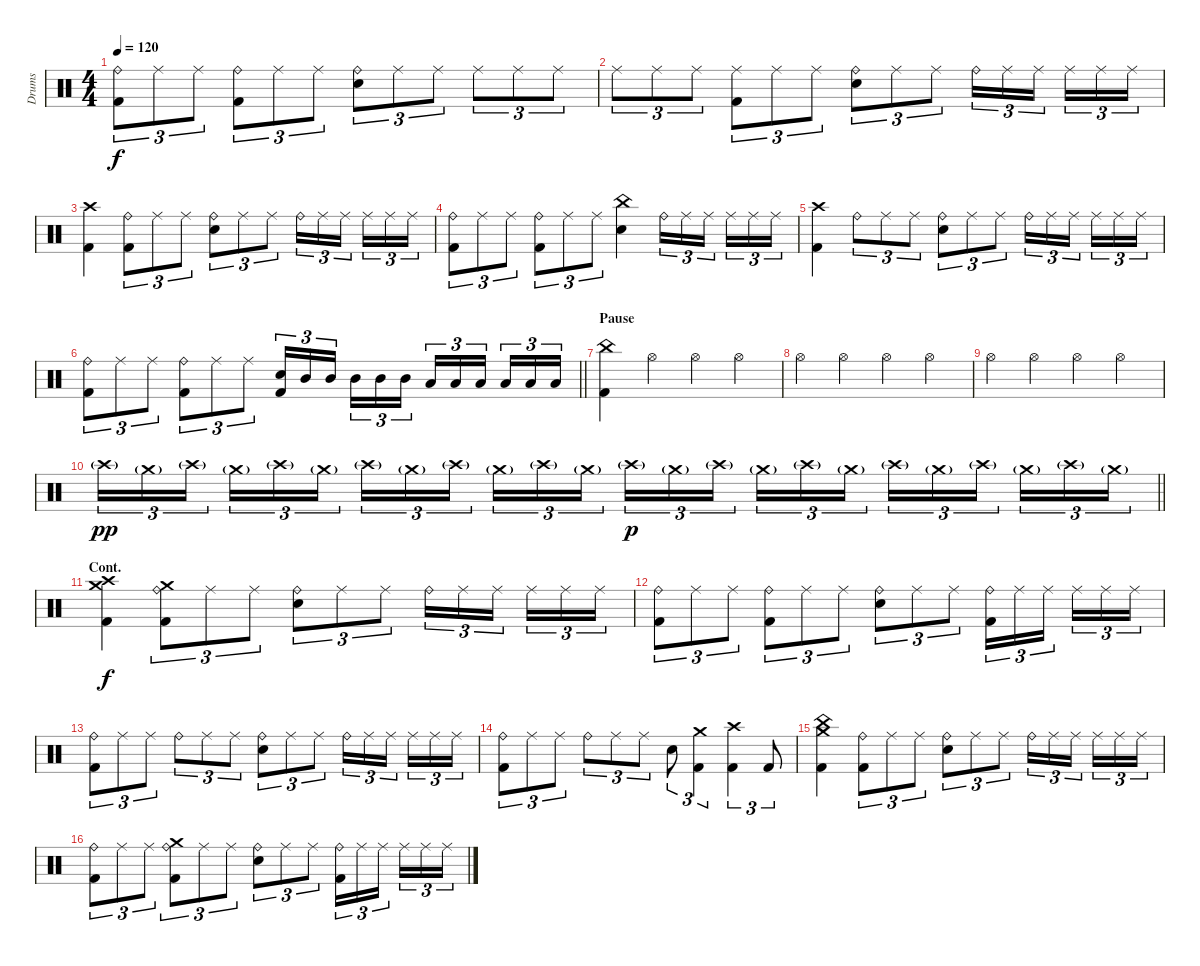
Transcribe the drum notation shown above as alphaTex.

\track ("Drums" "Drums") {instrument percussion}
\staff {score}
\articulation defaults
\ts (4 4)
\tempo 120
\clef neutral
\ks c
("Ride (bell)" "Kick (hit) 2").8{tu (3 2) dy f} "Ride (middle)".8{tu (3 2)} "Ride (middle)".8{tu (3 2)} ("Ride (bell)" "Kick (hit) 2").8{tu (3 2)} "Ride (middle)".8{tu (3 2)} "Ride (middle)".8{tu (3 2)} ("Ride (bell)" "Electric Snare (hit)").8{tu (3 2)} "Ride (middle)".8{tu (3 2)} "Ride (middle)".8{tu (3 2)} "Ride (middle)".8{tu (3 2)} "Ride (middle)".8{tu (3 2)} "Ride (middle)".8{tu (3 2)} |
"Ride (middle)".8{tu (3 2)} "Ride (middle)".8{tu (3 2)} "Ride (middle)".8{tu (3 2)} ("Ride (middle)" "Kick (hit) 2").8{tu (3 2)} "Ride (middle)".8{tu (3 2)} "Ride (middle)".8{tu (3 2)} ("Ride (bell)" "Electric Snare (hit)").8{tu (3 2)} "Ride (middle)".8{tu (3 2)} "Ride (middle)".8{tu (3 2)} "Ride (bell)".16{tu (3 2)} "Ride (middle)".16{tu (3 2)} "Ride (middle)".16{tu (3 2) beam splitsecondary} "Ride (middle)".16{tu (3 2)} "Ride (middle)".16{tu (3 2)} "Ride (middle)".16{tu (3 2)} |
("Crash high (hit)" "Kick (hit) 2").4 ("Ride (bell)" "Kick (hit) 2").8{tu (3 2)} "Ride (middle)".8{tu (3 2)} "Ride (middle)".8{tu (3 2)} ("Ride (bell)" "Electric Snare (hit)").8{tu (3 2)} "Ride (middle)".8{tu (3 2)} "Ride (middle)".8{tu (3 2)} "Ride (bell)".16{tu (3 2)} "Ride (middle)".16{tu (3 2)} "Ride (middle)".16{tu (3 2) beam splitsecondary} "Ride (middle)".16{tu (3 2)} "Ride (middle)".16{tu (3 2)} "Ride (middle)".16{tu (3 2)} |
("Ride (bell)" "Kick (hit) 2").8{tu (3 2)} "Ride (middle)".8{tu (3 2)} "Ride (middle)".8{tu (3 2)} ("Ride (bell)" "Kick (hit) 2").8{tu (3 2)} "Ride (middle)".8{tu (3 2)} "Ride (middle)".8{tu (3 2)} ("China (hit)" "Electric Snare (hit)").4 "Ride (bell)".16{tu (3 2)} "Ride (middle)".16{tu (3 2)} "Ride (middle)".16{tu (3 2) beam splitsecondary} "Ride (middle)".16{tu (3 2)} "Ride (middle)".16{tu (3 2)} "Ride (middle)".16{tu (3 2)} |
("Crash high (hit)" "Kick (hit) 2").4 "Ride (bell)".8{tu (3 2)} "Ride (middle)".8{tu (3 2)} "Ride (middle)".8{tu (3 2)} ("Ride (bell)" "Electric Snare (hit)").8{tu (3 2)} "Ride (middle)".8{tu (3 2)} "Ride (middle)".8{tu (3 2)} "Ride (bell)".16{tu (3 2)} "Ride (middle)".16{tu (3 2)} "Ride (middle)".16{tu (3 2) beam splitsecondary} "Ride (middle)".16{tu (3 2)} "Ride (middle)".16{tu (3 2)} "Ride (middle)".16{tu (3 2)} |
\barLineRight lightlight
("Ride (bell)" "Kick (hit) 2").8{tu (3 2)} "Ride (middle)".8{tu (3 2)} "Ride (middle)".8{tu (3 2)} ("Ride (bell)" "Kick (hit) 2").8{tu (3 2)} "Ride (middle)".8{tu (3 2)} "Ride (middle)".8{tu (3 2)} ("Electric Snare (hit)" "Kick (hit) 2").16{tu (3 2)} "Mid Tom (hit)".16{tu (3 2)} "Mid Tom (hit)".16{tu (3 2) beam splitsecondary} "Mid Tom (hit)".16{tu (3 2)} "Mid Tom (hit)".16{tu (3 2)} "Mid Tom (hit)".16{tu (3 2)} "Low Floor Tom (hit)".16{tu (3 2)} "Low Floor Tom (hit)".16{tu (3 2)} "Low Floor Tom (hit)".16{tu (3 2) beam splitsecondary} "Low Floor Tom (hit)".16{tu (3 2)} "Low Floor Tom (hit)".16{tu (3 2)} "Low Floor Tom (hit)".16{tu (3 2)} |
\section ("" "Pause")
("China (hit)" "Kick (hit) 2").4 "Hi-Hat (open)".4 "Hi-Hat (open)".4 "Hi-Hat (open)".4 |
"Hi-Hat (open)".4 "Hi-Hat (open)".4 "Hi-Hat (open)".4 "Hi-Hat (open)".4 |
"Hi-Hat (open)".4 "Hi-Hat (open)".4 "Hi-Hat (open)".4 "Hi-Hat (open)".4 |
\barLineRight lightlight "Crash high (hit)"{g}.16{tu (3 2) dy pp} "Crash medium (hit)"{g}.16{tu (3 2)} "Crash high (hit)"{g}.16{tu (3 2) beam splitsecondary} "Crash medium (hit)"{g}.16{tu (3 2)} "Crash high (hit)"{g}.16{tu (3 2)} "Crash medium (hit)"{g}.16{tu (3 2)} "Crash high (hit)"{g}.16{tu (3 2)} "Crash medium (hit)"{g}.16{tu (3 2)} "Crash high (hit)"{g}.16{tu (3 2) beam splitsecondary} "Crash medium (hit)"{g}.16{tu (3 2)} "Crash high (hit)"{g}.16{tu (3 2)} "Crash medium (hit)"{g}.16{tu (3 2)} "Crash high (hit)"{g}.16{tu (3 2) dy p} "Crash medium (hit)"{g}.16{tu (3 2)} "Crash high (hit)"{g}.16{tu (3 2) beam splitsecondary} "Crash medium (hit)"{g}.16{tu (3 2)} "Crash high (hit)"{g}.16{tu (3 2)} "Crash medium (hit)"{g}.16{tu (3 2)} "Crash high (hit)"{g}.16{tu (3 2)} "Crash medium (hit)"{g}.16{tu (3 2)} "Crash high (hit)"{g}.16{tu (3 2) beam splitsecondary} "Crash medium (hit)"{g}.16{tu (3 2)} "Crash high (hit)"{g}.16{tu (3 2)} "Crash medium (hit)"{g}.16{tu (3 2)}
|
\section ("" "Cont.")
("Crash high (hit)" "Crash medium (hit)" "Kick (hit) 2").4{dy f} ("Crash medium (hit)" "Ride (bell)" "Kick (hit) 2").8{tu (3 2)} "Ride (middle)".8{tu (3 2)} "Ride (middle)".8{tu (3 2)} ("Ride (bell)" "Electric Snare (hit)").8{tu (3 2)} "Ride (middle)".8{tu (3 2)} "Ride (middle)".8{tu (3 2)} "Ride (bell)".16{tu (3 2)} "Ride (middle)".16{tu (3 2)} "Ride (middle)".16{tu (3 2) beam splitsecondary} "Ride (middle)".16{tu (3 2)} "Ride (middle)".16{tu (3 2)} "Ride (middle)".16{tu (3 2)} |
("Ride (bell)" "Kick (hit) 2").8{tu (3 2)} "Ride (middle)".8{tu (3 2)} "Ride (middle)".8{tu (3 2)} ("Ride (bell)" "Kick (hit) 2").8{tu (3 2)} "Ride (middle)".8{tu (3 2)} "Ride (middle)".8{tu (3 2)} ("Ride (bell)" "Electric Snare (hit)").8{tu (3 2)} "Ride (middle)".8{tu (3 2)} "Ride (middle)".8{tu (3 2)} ("Ride (bell)" "Kick (hit) 2").16{tu (3 2)} "Ride (middle)".16{tu (3 2)} "Ride (middle)".16{tu (3 2) beam splitsecondary} "Ride (middle)".16{tu (3 2)} "Ride (middle)".16{tu (3 2)} "Ride (middle)".16{tu (3 2)} |
("Ride (bell)" "Kick (hit) 2").8{tu (3 2)} "Ride (middle)".8{tu (3 2)} "Ride (middle)".8{tu (3 2)} "Ride (bell)".8{tu (3 2)} "Ride (middle)".8{tu (3 2)} "Ride (middle)".8{tu (3 2)} ("Ride (bell)" "Electric Snare (hit)").8{tu (3 2)} "Ride (middle)".8{tu (3 2)} "Ride (middle)".8{tu (3 2)} "Ride (bell)".16{tu (3 2)} "Ride (middle)".16{tu (3 2)} "Ride (middle)".16{tu (3 2) beam splitsecondary} "Ride (middle)".16{tu (3 2)} "Ride (middle)".16{tu (3 2)} "Ride (middle)".16{tu (3 2)} |
("Ride (bell)" "Kick (hit) 2").8{tu (3 2)} "Ride (middle)".8{tu (3 2)} "Ride (middle)".8{tu (3 2)} "Ride (bell)".8{tu (3 2)} "Ride (middle)".8{tu (3 2)} "Ride (middle)".8{tu (3 2)} "Electric Snare (hit)".8{tu (3 2)} ("Crash medium (hit)" "Kick (hit) 2").4{tu (3 2)} ("Crash high (hit)" "Kick (hit) 2").4{tu (3 2)} "Kick (hit) 2".8{tu (3 2)} |
("Crash medium (hit)" "China (hit)" "Kick (hit) 2").4 ("Ride (bell)" "Kick (hit) 2").8{tu (3 2)} "Ride (middle)".8{tu (3 2)} "Ride (middle)".8{tu (3 2)} ("Ride (bell)" "Electric Snare (hit)").8{tu (3 2)} "Ride (middle)".8{tu (3 2)} "Ride (middle)".8{tu (3 2)} "Ride (bell)".16{tu (3 2)} "Ride (middle)".16{tu (3 2)} "Ride (middle)".16{tu (3 2) beam splitsecondary} "Ride (middle)".16{tu (3 2)} "Ride (middle)".16{tu (3 2)} "Ride (middle)".16{tu (3 2)} |
("Ride (bell)" "Kick (hit) 2").8{tu (3 2)} "Ride (middle)".8{tu (3 2)} "Ride (middle)".8{tu (3 2)} ("Ride (bell)" "Crash medium (hit)" "Kick (hit) 2").8{tu (3 2)} "Ride (middle)".8{tu (3 2)} "Ride (middle)".8{tu (3 2)} ("Ride (bell)" "Electric Snare (hit)").8{tu (3 2)} "Ride (middle)".8{tu (3 2)} "Ride (middle)".8{tu (3 2)} ("Ride (bell)" "Kick (hit) 2").16{tu (3 2)} "Ride (middle)".16{tu (3 2)} "Ride (middle)".16{tu (3 2) beam splitsecondary} "Ride (middle)".16{tu (3 2)} "Ride (middle)".16{tu (3 2)} "Ride (middle)".16{tu (3 2)}
